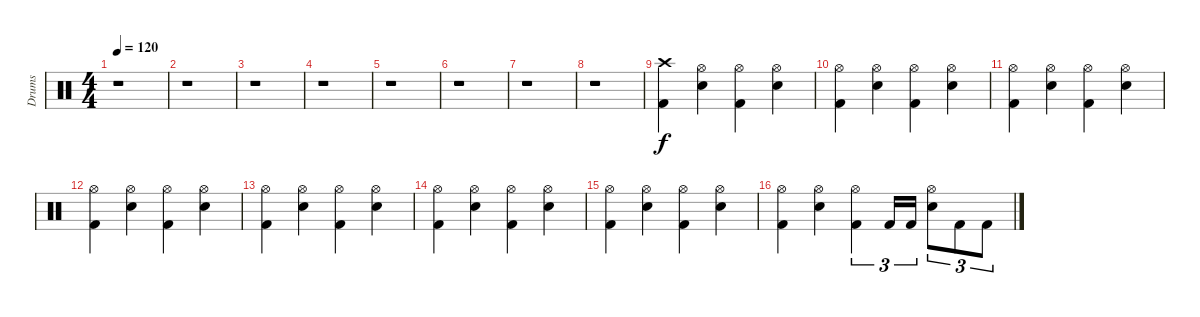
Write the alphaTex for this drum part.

\track ("Drums" "Drums") {instrument percussion}
\staff {score}
\articulation defaults
\ts (4 4)
\tempo 120
\clef neutral
\ks c
r.1{dy f} |
r.1 |
r.1 |
r.1 |
r.1 |
r.1 |
r.1 |
r.1 |
("Kick (hit) 2" "Crash high (hit)").4 ("Electric Snare (hit)" "Hi-Hat (open)").4 ("Kick (hit) 2" "Hi-Hat (open)").4 ("Electric Snare (hit)" "Hi-Hat (open)").4 |
("Kick (hit) 2" "Hi-Hat (open)").4 ("Electric Snare (hit)" "Hi-Hat (open)").4 ("Kick (hit) 2" "Hi-Hat (open)").4 ("Electric Snare (hit)" "Hi-Hat (open)").4 |
("Kick (hit) 2" "Hi-Hat (open)").4 ("Electric Snare (hit)" "Hi-Hat (open)").4 ("Kick (hit) 2" "Hi-Hat (open)").4 ("Electric Snare (hit)" "Hi-Hat (open)").4 |
("Kick (hit) 2" "Hi-Hat (open)").4 ("Electric Snare (hit)" "Hi-Hat (open)").4 ("Kick (hit) 2" "Hi-Hat (open)").4 ("Electric Snare (hit)" "Hi-Hat (open)").4 |
("Kick (hit) 2" "Hi-Hat (open)").4 ("Electric Snare (hit)" "Hi-Hat (open)").4 ("Kick (hit) 2" "Hi-Hat (open)").4 ("Electric Snare (hit)" "Hi-Hat (open)").4 |
("Kick (hit) 2" "Hi-Hat (open)").4 ("Electric Snare (hit)" "Hi-Hat (open)").4 ("Kick (hit) 2" "Hi-Hat (open)").4 ("Electric Snare (hit)" "Hi-Hat (open)").4 |
("Kick (hit) 2" "Hi-Hat (open)").4 ("Electric Snare (hit)" "Hi-Hat (open)").4 ("Kick (hit) 2" "Hi-Hat (open)").4 ("Electric Snare (hit)" "Hi-Hat (open)").4 |
("Kick (hit) 2" "Hi-Hat (open)").4 ("Electric Snare (hit)" "Hi-Hat (open)").4 ("Kick (hit) 2" "Hi-Hat (open)").4{tu (3 2)} "Kick (hit) 2".16{tu (3 2)} "Kick (hit) 2".16{tu (3 2)} ("Electric Snare (hit)" "Hi-Hat (open)").8{tu (3 2)} "Kick (hit) 2".8{tu (3 2)} "Kick (hit) 2".8{tu (3 2)}
